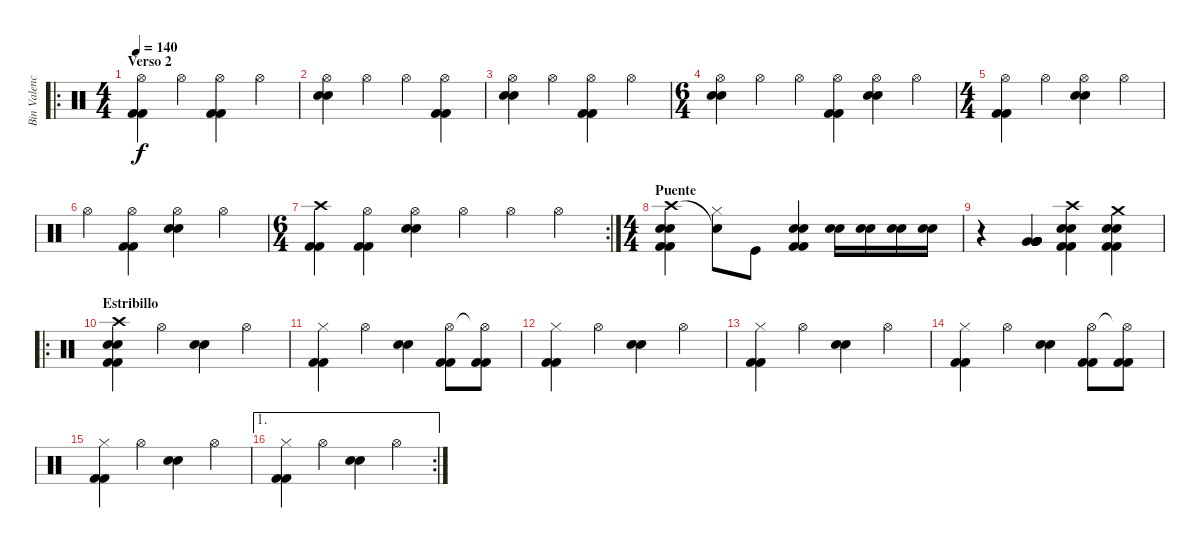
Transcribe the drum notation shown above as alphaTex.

\track ("Bin Valencia (Bateria)" "Bin Valenc") {instrument percussion}
\staff {score}
\articulation defaults
\ro
\ts (4 4)
\section ("" "Verso 2")
\tempo 140
\clef neutral
\ks c
("Hi-Hat (open)" "Kick (hit) 2" "Kick (hit) 2").4{dy f} "Hi-Hat (open)".4 ("Hi-Hat (open)" "Kick (hit) 2" "Kick (hit) 2").4 "Hi-Hat (open)".4 |
("Hi-Hat (open)" "Snare (hit) 2" "Snare (hit) 2").4 "Hi-Hat (open)".4 "Hi-Hat (open)".4 ("Hi-Hat (open)" "Kick (hit) 2" "Kick (hit) 2").4 |
("Hi-Hat (open)" "Snare (hit) 2" "Snare (hit) 2").4 "Hi-Hat (open)".4 ("Hi-Hat (open)" "Kick (hit) 2" "Kick (hit) 2").4 "Hi-Hat (open)".4 |
\ts (6 4)
("Hi-Hat (open)" "Snare (hit) 2" "Snare (hit) 2").4 "Hi-Hat (open)".4 "Hi-Hat (open)".4 ("Hi-Hat (open)" "Kick (hit) 2" "Kick (hit) 2").4 ("Hi-Hat (open)" "Snare (hit) 2" "Snare (hit) 2").4 "Hi-Hat (open)".4 |
\ts (4 4)
("Hi-Hat (open)" "Kick (hit) 2" "Kick (hit) 2").4 "Hi-Hat (open)".4 ("Hi-Hat (open)" "Snare (hit) 2" "Snare (hit) 2").4 "Hi-Hat (open)".4 |
"Hi-Hat (open)".4 ("Hi-Hat (open)" "Kick (hit) 2" "Kick (hit) 2").4 ("Hi-Hat (open)" "Snare (hit) 2" "Snare (hit) 2").4 "Hi-Hat (open)".4 |
\rc 2
\ts (6 4)
("Crash high (hit)" "Kick (hit) 2" "Kick (hit) 2").4 ("Hi-Hat (open)" "Kick (hit) 2" "Kick (hit) 2").4 ("Hi-Hat (open)" "Snare (hit) 2" "Snare (hit) 2").4 "Hi-Hat (open)".4 "Hi-Hat (open)".4 "Hi-Hat (open)".4 |
\ts (4 4)
\section ("" "Puente")
("Crash high (hit)" "Kick (hit) 2" "Kick (hit) 2" "Snare (hit) 2" "Snare (hit) 2").4 ("Snare (hit)"{t} "Hi-Hat (closed)").8 "Kick (hit)".8 ("Kick (hit) 2" "Kick (hit) 2" "Snare (hit) 2" "Snare (hit) 2").4 ("Snare (hit) 2" "Snare (hit) 2").16 ("Snare (hit) 2" "Snare (hit) 2").16 ("Snare (hit) 2" "Snare (hit) 2").16 ("Snare (hit) 2" "Snare (hit) 2").16 |
r.4 ("Very Low Tom (hit)" "Very Low Tom (hit)" "Very Low Tom (hit)" "Very Low Tom (hit)" "Very Low Tom (hit)" "Very Low Tom (hit)").4 ("Crash high (hit)" "Snare (hit) 2" "Snare (hit) 2" "Kick (hit) 2" "Kick (hit) 2").4 ("Crash medium (hit)" "Snare (hit) 2" "Snare (hit) 2" "Kick (hit) 2" "Kick (hit) 2").4 |
\ro
\section ("" "Estribillo")
("Crash high (hit)" "Snare (hit) 2" "Snare (hit) 2" "Kick (hit) 2" "Kick (hit) 2").4 "Hi-Hat (open)".4 ("Snare (hit) 2" "Snare (hit) 2").4 "Hi-Hat (open)".4 |
("Hi-Hat (closed)" "Kick (hit) 2" "Kick (hit) 2").4 "Hi-Hat (open)".4 ("Snare (hit) 2" "Snare (hit) 2").4 ("Hi-Hat (open)" "Kick (hit) 2" "Kick (hit) 2").8 ("Hi-Hat (open)"{t} "Kick (hit) 2" "Kick (hit) 2").8 |
("Hi-Hat (closed)" "Kick (hit) 2" "Kick (hit) 2").4 "Hi-Hat (open)".4 ("Snare (hit) 2" "Snare (hit) 2").4 "Hi-Hat (open)".4 |
("Hi-Hat (closed)" "Kick (hit) 2" "Kick (hit) 2").4 "Hi-Hat (open)".4 ("Snare (hit) 2" "Snare (hit) 2").4 "Hi-Hat (open)".4 |
("Hi-Hat (closed)" "Kick (hit) 2" "Kick (hit) 2").4 "Hi-Hat (open)".4 ("Snare (hit) 2" "Snare (hit) 2").4 ("Hi-Hat (open)" "Kick (hit) 2" "Kick (hit) 2").8 ("Hi-Hat (open)"{t} "Kick (hit) 2" "Kick (hit) 2").8 |
("Hi-Hat (closed)" "Kick (hit) 2" "Kick (hit) 2").4 "Hi-Hat (open)".4 ("Snare (hit) 2" "Snare (hit) 2").4 "Hi-Hat (open)".4 |
\ae 1
\rc 2
("Hi-Hat (closed)" "Kick (hit) 2" "Kick (hit) 2").4 "Hi-Hat (open)".4 ("Snare (hit) 2" "Snare (hit) 2").4 "Hi-Hat (open)".4
